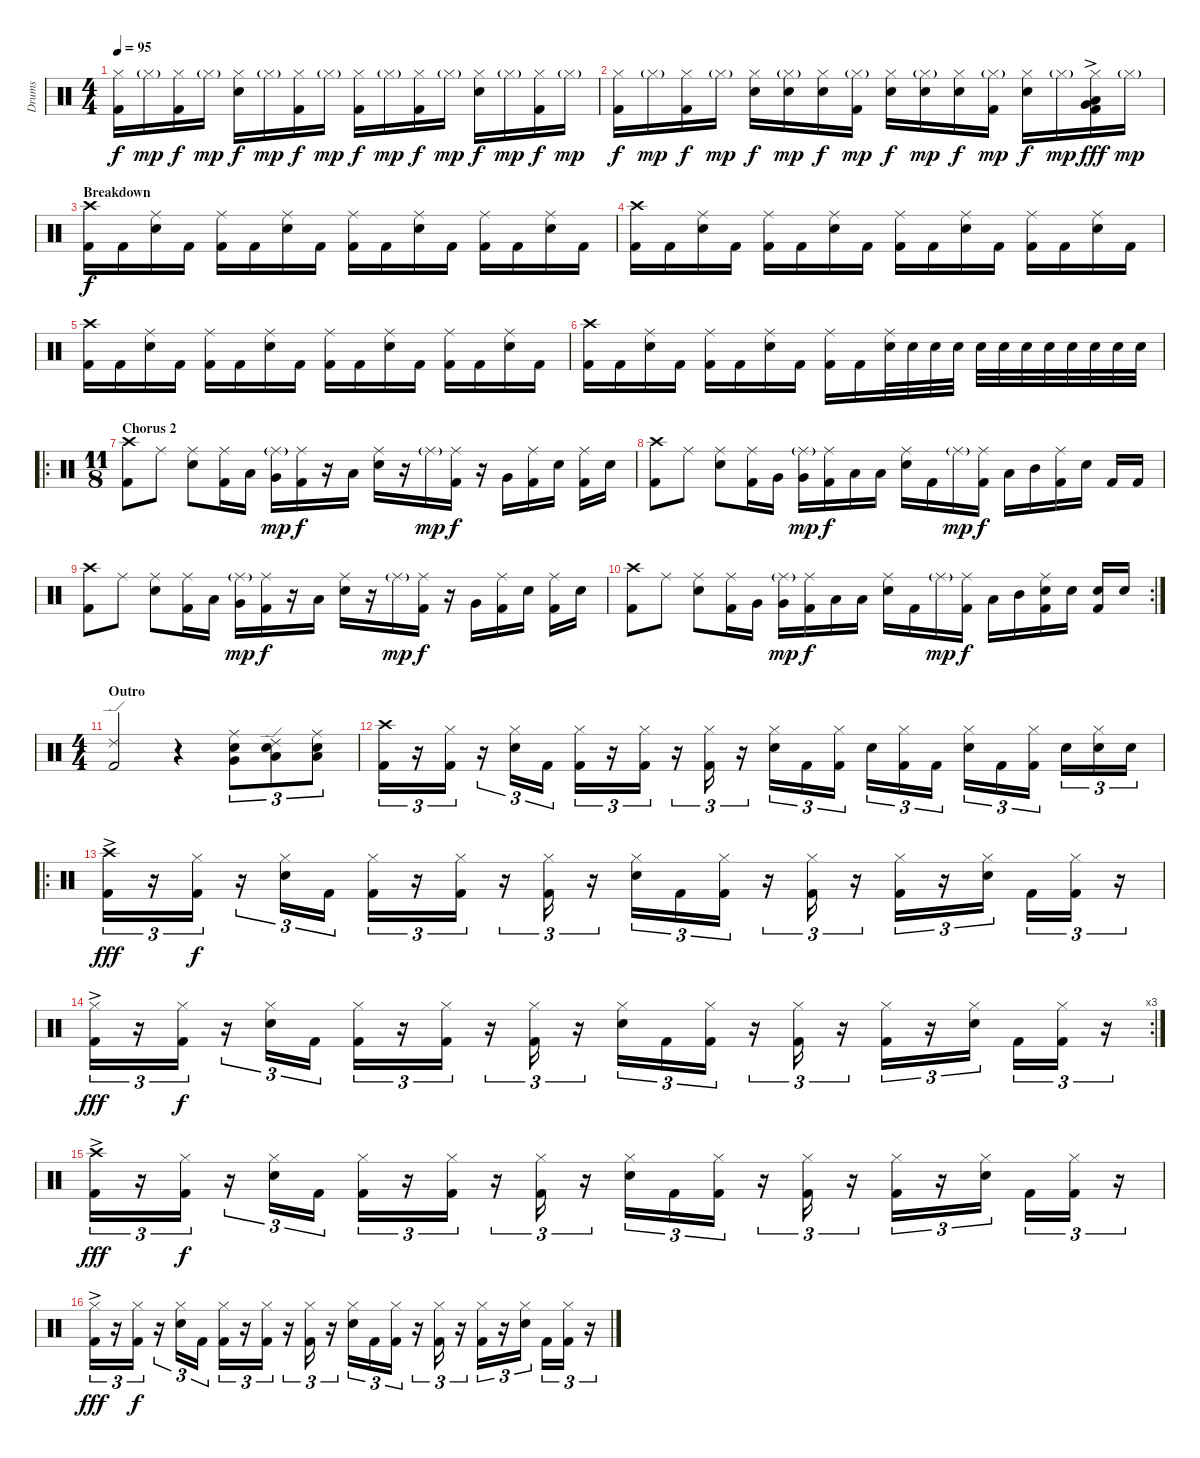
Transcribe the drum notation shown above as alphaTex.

\track ("Drums" "Drums") {instrument percussion}
\staff {score}
\articulation defaults
\ts (4 4)
\tempo 95
\clef neutral
\ks c
("Hi-Hat (closed)" "Kick (hit) 2").16{dy f} "Hi-Hat (closed)"{g}.16{dy mp} ("Hi-Hat (closed)" "Kick (hit) 2").16{dy f} "Hi-Hat (closed)"{g}.16{dy mp} ("Hi-Hat (closed)" "Electric Snare (hit)").16{dy f} "Hi-Hat (closed)"{g}.16{dy mp} ("Hi-Hat (closed)" "Kick (hit) 2").16{dy f} "Hi-Hat (closed)"{g}.16{dy mp} ("Hi-Hat (closed)" "Kick (hit) 2").16{dy f} "Hi-Hat (closed)"{g}.16{dy mp} ("Hi-Hat (closed)" "Kick (hit) 2").16{dy f} "Hi-Hat (closed)"{g}.16{dy mp} ("Hi-Hat (closed)" "Electric Snare (hit)").16{dy f} "Hi-Hat (closed)"{g}.16{dy mp} ("Hi-Hat (closed)" "Kick (hit) 2").16{dy f} "Hi-Hat (closed)"{g}.16{dy mp} |
("Hi-Hat (closed)" "Kick (hit) 2").16{dy f} "Hi-Hat (closed)"{g}.16{dy mp} ("Hi-Hat (closed)" "Kick (hit) 2").16{dy f} "Hi-Hat (closed)"{g}.16{dy mp} ("Hi-Hat (closed)" "Electric Snare (hit)").16{dy f} ("Hi-Hat (closed)"{g} "Electric Snare (hit)").16{dy mp} ("Hi-Hat (closed)" "Electric Snare (hit)").16{dy f} ("Hi-Hat (closed)"{g} "Kick (hit) 2").16{dy mp} ("Hi-Hat (closed)" "Electric Snare (hit)").16{dy f} ("Hi-Hat (closed)"{g} "Electric Snare (hit)").16{dy mp} ("Hi-Hat (closed)" "Electric Snare (hit)").16{dy f} ("Hi-Hat (closed)"{g} "Kick (hit) 2").16{dy mp} ("Hi-Hat (closed)" "Electric Snare (hit)").16{dy f} "Hi-Hat (closed)"{g}.16{dy mp} ("Hi-Hat (closed)" "Very Low Tom (hit)"{ac} "Low Floor Tom (hit)"{ac} "Kick (hit) 2").16{dy fff} "Hi-Hat (closed)"{g}.16{dy mp} |
\section ("" "Breakdown")
("Crash high (hit)" "Kick (hit) 2").16{dy f} "Kick (hit) 2".16 ("Ride (middle)" "Electric Snare (hit)").16 "Kick (hit) 2".16 ("Ride (middle)" "Kick (hit) 2").16 "Kick (hit) 2".16 ("Ride (middle)" "Electric Snare (hit)").16 "Kick (hit) 2".16 ("Ride (middle)" "Kick (hit) 2").16 "Kick (hit) 2".16 ("Ride (middle)" "Electric Snare (hit)").16 "Kick (hit) 2".16 ("Ride (middle)" "Kick (hit) 2").16 "Kick (hit) 2".16 ("Ride (middle)" "Electric Snare (hit)").16 "Kick (hit) 2".16 |
("Crash high (hit)" "Kick (hit) 2").16 "Kick (hit) 2".16 ("Ride (middle)" "Electric Snare (hit)").16 "Kick (hit) 2".16 ("Ride (middle)" "Kick (hit) 2").16 "Kick (hit) 2".16 ("Ride (middle)" "Electric Snare (hit)").16 "Kick (hit) 2".16 ("Ride (middle)" "Kick (hit) 2").16 "Kick (hit) 2".16 ("Ride (middle)" "Electric Snare (hit)").16 "Kick (hit) 2".16 ("Ride (middle)" "Kick (hit) 2").16 "Kick (hit) 2".16 ("Ride (middle)" "Electric Snare (hit)").16 "Kick (hit) 2".16 |
("Crash high (hit)" "Kick (hit) 2").16 "Kick (hit) 2".16 ("Ride (middle)" "Electric Snare (hit)").16 "Kick (hit) 2".16 ("Ride (middle)" "Kick (hit) 2").16 "Kick (hit) 2".16 ("Ride (middle)" "Electric Snare (hit)").16 "Kick (hit) 2".16 ("Ride (middle)" "Kick (hit) 2").16 "Kick (hit) 2".16 ("Ride (middle)" "Electric Snare (hit)").16 "Kick (hit) 2".16 ("Ride (middle)" "Kick (hit) 2").16 "Kick (hit) 2".16 ("Ride (middle)" "Electric Snare (hit)").16 "Kick (hit) 2".16 |
("Crash high (hit)" "Kick (hit) 2").16 "Kick (hit) 2".16 ("Ride (middle)" "Electric Snare (hit)").16 "Kick (hit) 2".16 ("Ride (middle)" "Kick (hit) 2").16 "Kick (hit) 2".16 ("Ride (middle)" "Electric Snare (hit)").16 "Kick (hit) 2".16 ("Ride (middle)" "Kick (hit) 2").16 "Kick (hit) 2".16 ("Ride (middle)" "Electric Snare (hit)").32 "Electric Snare (hit)".32 "Electric Snare (hit)".32 "Electric Snare (hit)".32 "Electric Snare (hit)".32 "Electric Snare (hit)".32 "Electric Snare (hit)".32 "Electric Snare (hit)".32 "Electric Snare (hit)".32 "Electric Snare (hit)".32 "Electric Snare (hit)".32 "Electric Snare (hit)".32 |
\ro
\ts (11 8)
\section ("" "Chorus 2")
("Crash high (hit)" "Kick (hit) 2").8 "Ride (middle)".8 ("Ride (middle)" "Electric Snare (hit)").8 ("Ride (middle)" "Kick (hit) 2").16 "Low Tom (hit)".16 ("Ride (middle)"{g} "Very Low Tom (hit)").16{dy mp} ("Ride (middle)" "Kick (hit) 2").16{dy f} r.16 "Low Floor Tom (hit)".16 ("Ride (middle)" "Electric Snare (hit)").16 r.16 "Ride (middle)"{g}.16{dy mp} ("Ride (middle)" "Kick (hit) 2").16{dy f} r.16 "Very Low Tom (hit)".16 ("Ride (middle)" "Kick (hit) 2").16 "Electric Snare (hit)".16 ("Ride (middle)" "Kick (hit) 2").16 "Electric Snare (hit)".16 |
("Crash high (hit)" "Kick (hit) 2").8 "Ride (middle)".8 ("Ride (middle)" "Electric Snare (hit)").8 ("Ride (middle)" "Kick (hit) 2").16 "Very Low Tom (hit)".16 ("Ride (middle)"{g} "Very Low Tom (hit)").16{dy mp} ("Ride (middle)" "Kick (hit) 2").16{dy f} "Low Tom (hit)".16 "Low Floor Tom (hit)".16 ("Ride (middle)" "Electric Snare (hit)").16 "Kick (hit) 2".16 "Ride (middle)"{g}.16{dy mp} ("Ride (middle)" "Kick (hit) 2").16{dy f} "Low Floor Tom (hit)".16 "Mid Tom (hit)".16 ("Ride (middle)" "Kick (hit) 2").16 "Electric Snare (hit)".16 "Kick (hit) 2".16 "Kick (hit) 2".16 |
("Crash high (hit)" "Kick (hit) 2").8 "Ride (middle)".8 ("Ride (middle)" "Electric Snare (hit)").8 ("Ride (middle)" "Kick (hit) 2").16 "Low Tom (hit)".16 ("Ride (middle)"{g} "Very Low Tom (hit)").16{dy mp} ("Ride (middle)" "Kick (hit) 2").16{dy f} r.16 "Low Floor Tom (hit)".16 ("Ride (middle)" "Electric Snare (hit)").16 r.16 "Ride (middle)"{g}.16{dy mp} ("Ride (middle)" "Kick (hit) 2").16{dy f} r.16 "Very Low Tom (hit)".16 ("Ride (middle)" "Kick (hit) 2").16 "Electric Snare (hit)".16 ("Ride (middle)" "Kick (hit) 2").16 "Electric Snare (hit)".16 |
\rc 2
("Crash high (hit)" "Kick (hit) 2").8 "Ride (middle)".8 ("Ride (middle)" "Electric Snare (hit)").8 ("Ride (middle)" "Kick (hit) 2").16 "Very Low Tom (hit)".16 ("Ride (middle)"{g} "Very Low Tom (hit)").16{dy mp} ("Ride (middle)" "Kick (hit) 2").16{dy f} "Low Tom (hit)".16 "Low Floor Tom (hit)".16 ("Ride (middle)" "Electric Snare (hit)").16 "Kick (hit) 2".16 "Ride (middle)"{g}.16{dy mp} ("Ride (middle)" "Kick (hit) 2").16{dy f} "Low Floor Tom (hit)".16 "Mid Tom (hit)".16 ("Ride (middle)" "Electric Snare (hit)" "Kick (hit) 2").16 "Electric Snare (hit)".16 ("Electric Snare (hit)" "Kick (hit) 2").16 "Electric Snare (hit)".16 |
\ts (4 4)
\section ("" "Outro")
("Ride (edge) 2" "Kick (hit) 2").2 r.4 ("Ride (middle)" "Very Low Tom (hit)" "Electric Snare (hit)").8{tu (3 2)} ("Ride (edge) 2" "Low Tom (hit)" "Electric Snare (hit)").8{tu (3 2)} ("Ride (middle)" "Low Floor Tom (hit)" "Electric Snare (hit)").8{tu (3 2)} |
("Crash high (hit)" "Kick (hit) 2").16{tu (3 2)} r.16{tu (3 2)} ("Hi-Hat (closed)" "Kick (hit) 2").16{tu (3 2)} r.16{tu (3 2)} ("Hi-Hat (closed)" "Electric Snare (hit)").16{tu (3 2)} "Kick (hit) 2".16{tu (3 2)} ("Hi-Hat (closed)" "Kick (hit) 2").16{tu (3 2)} r.16{tu (3 2)} ("Hi-Hat (closed)" "Kick (hit) 2").16{tu (3 2)} r.16{tu (3 2)} ("Hi-Hat (closed)" "Kick (hit) 2").16{tu (3 2)} r.16{tu (3 2)} ("Hi-Hat (closed)" "Electric Snare (hit)").16{tu (3 2)} "Kick (hit) 2".16{tu (3 2)} ("Hi-Hat (closed)" "Kick (hit) 2").16{tu (3 2)} "Electric Snare (hit)".16{tu (3 2)} ("Hi-Hat (closed)" "Kick (hit) 2").16{tu (3 2)} "Kick (hit) 2".16{tu (3 2)} ("Hi-Hat (closed)" "Electric Snare (hit)").16{tu (3 2)} "Kick (hit) 2".16{tu (3 2)} ("Hi-Hat (closed)" "Kick (hit) 2").16{tu (3 2)} "Electric Snare (hit)".16{tu (3 2)} ("Hi-Hat (closed)" "Electric Snare (hit)").16{tu (3 2)} "Electric Snare (hit)".16{tu (3 2)} |
\ro
("Crash high (hit)"{ac} "Kick (hit) 2").16{tu (3 2) dy fff} r.16{tu (3 2)} ("Hi-Hat (closed)" "Kick (hit) 2").16{tu (3 2) dy f} r.16{tu (3 2)} ("Hi-Hat (closed)" "Electric Snare (hit)").16{tu (3 2)} "Kick (hit) 2".16{tu (3 2)} ("Hi-Hat (closed)" "Kick (hit) 2").16{tu (3 2)} r.16{tu (3 2)} ("Hi-Hat (closed)" "Kick (hit) 2").16{tu (3 2)} r.16{tu (3 2)} ("Hi-Hat (closed)" "Kick (hit) 2").16{tu (3 2)} r.16{tu (3 2)} ("Hi-Hat (closed)" "Electric Snare (hit)").16{tu (3 2)} "Kick (hit) 2".16{tu (3 2)} ("Hi-Hat (closed)" "Kick (hit) 2").16{tu (3 2)} r.16{tu (3 2)} ("Hi-Hat (closed)" "Kick (hit) 2").16{tu (3 2)} r.16{tu (3 2)} ("Hi-Hat (closed)" "Kick (hit) 2").16{tu (3 2)} r.16{tu (3 2)} ("Hi-Hat (closed)" "Electric Snare (hit)").16{tu (3 2)} "Kick (hit) 2".16{tu (3 2)} ("Hi-Hat (closed)" "Kick (hit) 2").16{tu (3 2)} r.16{tu (3 2)} |
\rc 3
("Hi-Hat (closed)"{ac} "Kick (hit) 2").16{tu (3 2) dy fff} r.16{tu (3 2)} ("Hi-Hat (closed)" "Kick (hit) 2").16{tu (3 2) dy f} r.16{tu (3 2)} ("Hi-Hat (closed)" "Electric Snare (hit)").16{tu (3 2)} "Kick (hit) 2".16{tu (3 2)} ("Hi-Hat (closed)" "Kick (hit) 2").16{tu (3 2)} r.16{tu (3 2)} ("Hi-Hat (closed)" "Kick (hit) 2").16{tu (3 2)} r.16{tu (3 2)} ("Hi-Hat (closed)" "Kick (hit) 2").16{tu (3 2)} r.16{tu (3 2)} ("Hi-Hat (closed)" "Electric Snare (hit)").16{tu (3 2)} "Kick (hit) 2".16{tu (3 2)} ("Hi-Hat (closed)" "Kick (hit) 2").16{tu (3 2)} r.16{tu (3 2)} ("Hi-Hat (closed)" "Kick (hit) 2").16{tu (3 2)} r.16{tu (3 2)} ("Hi-Hat (closed)" "Kick (hit) 2").16{tu (3 2)} r.16{tu (3 2)} ("Hi-Hat (closed)" "Electric Snare (hit)").16{tu (3 2)} "Kick (hit) 2".16{tu (3 2)} ("Hi-Hat (closed)" "Kick (hit) 2").16{tu (3 2)} r.16{tu (3 2)} |
("Crash high (hit)"{ac} "Kick (hit) 2").16{tu (3 2) dy fff} r.16{tu (3 2)} ("Hi-Hat (closed)" "Kick (hit) 2").16{tu (3 2) dy f} r.16{tu (3 2)} ("Hi-Hat (closed)" "Electric Snare (hit)").16{tu (3 2)} "Kick (hit) 2".16{tu (3 2)} ("Hi-Hat (closed)" "Kick (hit) 2").16{tu (3 2)} r.16{tu (3 2)} ("Hi-Hat (closed)" "Kick (hit) 2").16{tu (3 2)} r.16{tu (3 2)} ("Hi-Hat (closed)" "Kick (hit) 2").16{tu (3 2)} r.16{tu (3 2)} ("Hi-Hat (closed)" "Electric Snare (hit)").16{tu (3 2)} "Kick (hit) 2".16{tu (3 2)} ("Hi-Hat (closed)" "Kick (hit) 2").16{tu (3 2)} r.16{tu (3 2)} ("Hi-Hat (closed)" "Kick (hit) 2").16{tu (3 2)} r.16{tu (3 2)} ("Hi-Hat (closed)" "Kick (hit) 2").16{tu (3 2)} r.16{tu (3 2)} ("Hi-Hat (closed)" "Electric Snare (hit)").16{tu (3 2)} "Kick (hit) 2".16{tu (3 2)} ("Hi-Hat (closed)" "Kick (hit) 2").16{tu (3 2)} r.16{tu (3 2)} |
("Hi-Hat (closed)"{ac} "Kick (hit) 2").16{tu (3 2) dy fff} r.16{tu (3 2)} ("Hi-Hat (closed)" "Kick (hit) 2").16{tu (3 2) dy f} r.16{tu (3 2)} ("Hi-Hat (closed)" "Electric Snare (hit)").16{tu (3 2)} "Kick (hit) 2".16{tu (3 2)} ("Hi-Hat (closed)" "Kick (hit) 2").16{tu (3 2)} r.16{tu (3 2)} ("Hi-Hat (closed)" "Kick (hit) 2").16{tu (3 2)} r.16{tu (3 2)} ("Hi-Hat (closed)" "Kick (hit) 2").16{tu (3 2)} r.16{tu (3 2)} ("Hi-Hat (closed)" "Electric Snare (hit)").16{tu (3 2)} "Kick (hit) 2".16{tu (3 2)} ("Hi-Hat (closed)" "Kick (hit) 2").16{tu (3 2)} r.16{tu (3 2)} ("Hi-Hat (closed)" "Kick (hit) 2").16{tu (3 2)} r.16{tu (3 2)} ("Hi-Hat (closed)" "Kick (hit) 2").16{tu (3 2)} r.16{tu (3 2)} ("Hi-Hat (closed)" "Electric Snare (hit)").16{tu (3 2)} "Kick (hit) 2".16{tu (3 2)} ("Hi-Hat (closed)" "Kick (hit) 2").16{tu (3 2)} r.16{tu (3 2)}
